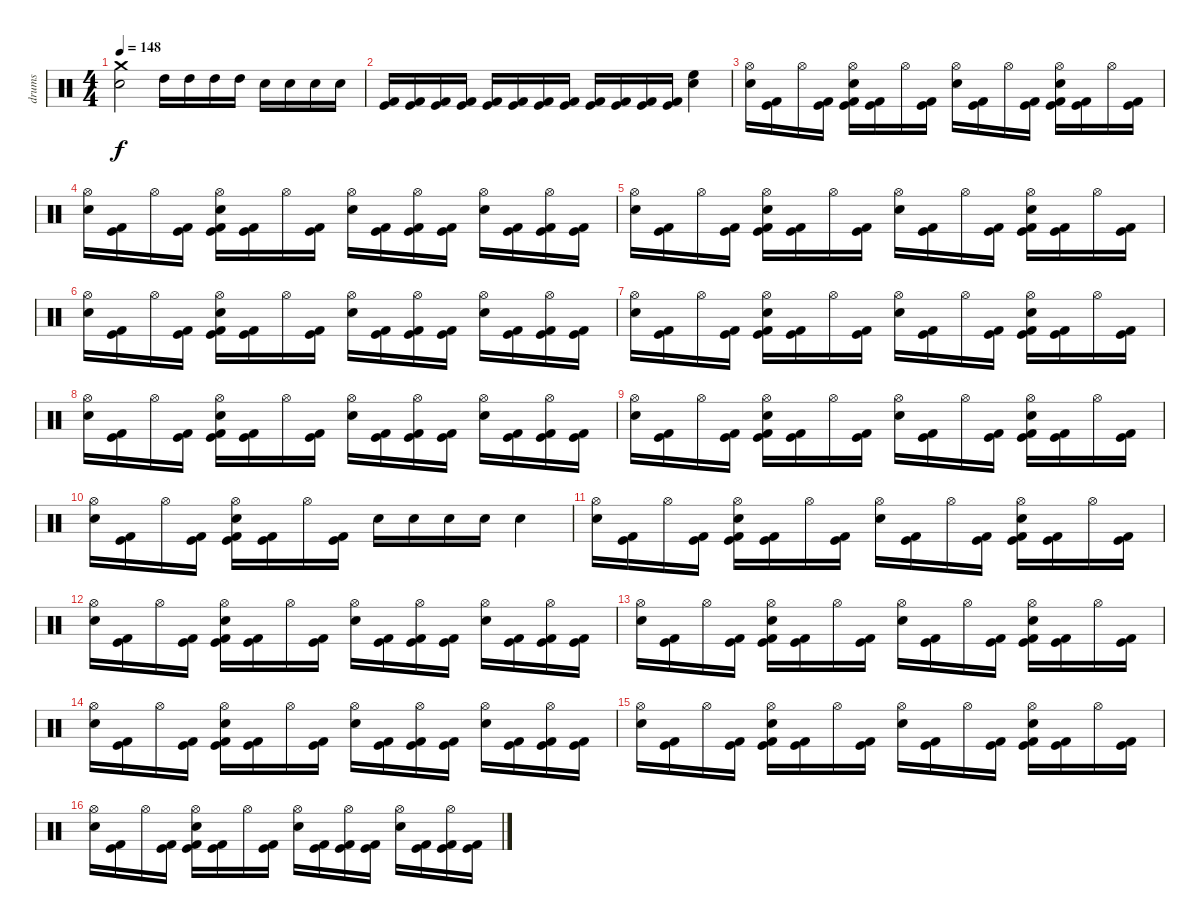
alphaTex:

\track ("drums" "drums") {instrument percussion}
\staff {score}
\articulation defaults
\ts (4 4)
\tempo 148
\clef neutral
\ks c
("Snare (hit) 2" "Crash medium (hit)").2{dy f} "High Tom (hit)".16 "High Tom (hit)".16 "High Tom (hit)".16 "High Tom (hit)".16 "Snare (hit) 2".16 "Snare (hit) 2".16 "Snare (hit) 2".16 "Snare (hit) 2".16 |
("Kick (hit)" "Kick (hit) 2").16 ("Kick (hit)" "Kick (hit) 2").16 ("Kick (hit)" "Kick (hit) 2").16 ("Kick (hit)" "Kick (hit) 2").16 ("Kick (hit)" "Kick (hit) 2").16 ("Kick (hit)" "Kick (hit) 2").16 ("Kick (hit)" "Kick (hit) 2").16 ("Kick (hit)" "Kick (hit) 2").16 ("Kick (hit)" "Kick (hit) 2").16 ("Kick (hit)" "Kick (hit) 2").16 ("Kick (hit)" "Kick (hit) 2").16 ("Kick (hit)" "Kick (hit) 2").16 ("Snare (hit) 2" "High Floor Tom (hit)").4 |
("Snare (hit) 2" "Hi-Hat (open)").16 ("Kick (hit)" "Kick (hit) 2").16 "Hi-Hat (open)".16 ("Kick (hit)" "Kick (hit) 2").16 ("Kick (hit)" "Kick (hit) 2" "Snare (hit) 2" "Hi-Hat (open)").16 ("Kick (hit)" "Kick (hit) 2").16 "Hi-Hat (open)".16 ("Kick (hit)" "Kick (hit) 2").16 ("Snare (hit) 2" "Hi-Hat (open)").16 ("Kick (hit)" "Kick (hit) 2").16 "Hi-Hat (open)".16 ("Kick (hit)" "Kick (hit) 2").16 ("Kick (hit)" "Kick (hit) 2" "Snare (hit) 2" "Hi-Hat (open)").16 ("Kick (hit)" "Kick (hit) 2").16 "Hi-Hat (open)".16 ("Kick (hit)" "Kick (hit) 2").16 |
("Snare (hit) 2" "Hi-Hat (open)").16 ("Kick (hit)" "Kick (hit) 2").16 "Hi-Hat (open)".16 ("Kick (hit)" "Kick (hit) 2").16 ("Kick (hit)" "Kick (hit) 2" "Snare (hit) 2" "Hi-Hat (open)").16 ("Kick (hit)" "Kick (hit) 2").16 "Hi-Hat (open)".16 ("Kick (hit)" "Kick (hit) 2").16 ("Snare (hit) 2" "Hi-Hat (open)").16 ("Kick (hit)" "Kick (hit) 2").16 ("Kick (hit)" "Kick (hit) 2" "Hi-Hat (open)").16 ("Kick (hit)" "Kick (hit) 2").16 ("Snare (hit) 2" "Hi-Hat (open)").16 ("Kick (hit)" "Kick (hit) 2").16 ("Kick (hit)" "Kick (hit) 2" "Hi-Hat (open)").16 ("Kick (hit)" "Kick (hit) 2").16 |
("Snare (hit) 2" "Hi-Hat (open)").16 ("Kick (hit)" "Kick (hit) 2").16 "Hi-Hat (open)".16 ("Kick (hit)" "Kick (hit) 2").16 ("Kick (hit)" "Kick (hit) 2" "Snare (hit) 2" "Hi-Hat (open)").16 ("Kick (hit)" "Kick (hit) 2").16 "Hi-Hat (open)".16 ("Kick (hit)" "Kick (hit) 2").16 ("Snare (hit) 2" "Hi-Hat (open)").16 ("Kick (hit)" "Kick (hit) 2").16 "Hi-Hat (open)".16 ("Kick (hit)" "Kick (hit) 2").16 ("Kick (hit)" "Kick (hit) 2" "Snare (hit) 2" "Hi-Hat (open)").16 ("Kick (hit)" "Kick (hit) 2").16 "Hi-Hat (open)".16 ("Kick (hit)" "Kick (hit) 2").16 |
("Snare (hit) 2" "Hi-Hat (open)").16 ("Kick (hit)" "Kick (hit) 2").16 "Hi-Hat (open)".16 ("Kick (hit)" "Kick (hit) 2").16 ("Kick (hit)" "Kick (hit) 2" "Snare (hit) 2" "Hi-Hat (open)").16 ("Kick (hit)" "Kick (hit) 2").16 "Hi-Hat (open)".16 ("Kick (hit)" "Kick (hit) 2").16 ("Snare (hit) 2" "Hi-Hat (open)").16 ("Kick (hit)" "Kick (hit) 2").16 ("Kick (hit)" "Kick (hit) 2" "Hi-Hat (open)").16 ("Kick (hit)" "Kick (hit) 2").16 ("Snare (hit) 2" "Hi-Hat (open)").16 ("Kick (hit)" "Kick (hit) 2").16 ("Kick (hit)" "Kick (hit) 2" "Hi-Hat (open)").16 ("Kick (hit)" "Kick (hit) 2").16 |
("Snare (hit) 2" "Hi-Hat (open)").16 ("Kick (hit)" "Kick (hit) 2").16 "Hi-Hat (open)".16 ("Kick (hit)" "Kick (hit) 2").16 ("Kick (hit)" "Kick (hit) 2" "Snare (hit) 2" "Hi-Hat (open)").16 ("Kick (hit)" "Kick (hit) 2").16 "Hi-Hat (open)".16 ("Kick (hit)" "Kick (hit) 2").16 ("Snare (hit) 2" "Hi-Hat (open)").16 ("Kick (hit)" "Kick (hit) 2").16 "Hi-Hat (open)".16 ("Kick (hit)" "Kick (hit) 2").16 ("Kick (hit)" "Kick (hit) 2" "Snare (hit) 2" "Hi-Hat (open)").16 ("Kick (hit)" "Kick (hit) 2").16 "Hi-Hat (open)".16 ("Kick (hit)" "Kick (hit) 2").16 |
("Snare (hit) 2" "Hi-Hat (open)").16 ("Kick (hit)" "Kick (hit) 2").16 "Hi-Hat (open)".16 ("Kick (hit)" "Kick (hit) 2").16 ("Kick (hit)" "Kick (hit) 2" "Snare (hit) 2" "Hi-Hat (open)").16 ("Kick (hit)" "Kick (hit) 2").16 "Hi-Hat (open)".16 ("Kick (hit)" "Kick (hit) 2").16 ("Snare (hit) 2" "Hi-Hat (open)").16 ("Kick (hit)" "Kick (hit) 2").16 ("Kick (hit)" "Kick (hit) 2" "Hi-Hat (open)").16 ("Kick (hit)" "Kick (hit) 2").16 ("Snare (hit) 2" "Hi-Hat (open)").16 ("Kick (hit)" "Kick (hit) 2").16 ("Kick (hit)" "Kick (hit) 2" "Hi-Hat (open)").16 ("Kick (hit)" "Kick (hit) 2").16 |
("Snare (hit) 2" "Hi-Hat (open)").16 ("Kick (hit)" "Kick (hit) 2").16 "Hi-Hat (open)".16 ("Kick (hit)" "Kick (hit) 2").16 ("Kick (hit)" "Kick (hit) 2" "Snare (hit) 2" "Hi-Hat (open)").16 ("Kick (hit)" "Kick (hit) 2").16 "Hi-Hat (open)".16 ("Kick (hit)" "Kick (hit) 2").16 ("Snare (hit) 2" "Hi-Hat (open)").16 ("Kick (hit)" "Kick (hit) 2").16 "Hi-Hat (open)".16 ("Kick (hit)" "Kick (hit) 2").16 ("Kick (hit)" "Kick (hit) 2" "Snare (hit) 2" "Hi-Hat (open)").16 ("Kick (hit)" "Kick (hit) 2").16 "Hi-Hat (open)".16 ("Kick (hit)" "Kick (hit) 2").16 |
("Snare (hit) 2" "Hi-Hat (open)").16 ("Kick (hit)" "Kick (hit) 2").16 "Hi-Hat (open)".16 ("Kick (hit)" "Kick (hit) 2").16 ("Kick (hit)" "Kick (hit) 2" "Snare (hit) 2" "Hi-Hat (open)").16 ("Kick (hit)" "Kick (hit) 2").16 "Hi-Hat (open)".16 ("Kick (hit)" "Kick (hit) 2").16 "Snare (hit) 2".16 "Snare (hit) 2".16 "Snare (hit) 2".16 "Snare (hit) 2".16 "Snare (hit) 2".4 |
("Snare (hit) 2" "Hi-Hat (open)").16 ("Kick (hit)" "Kick (hit) 2").16 "Hi-Hat (open)".16 ("Kick (hit)" "Kick (hit) 2").16 ("Kick (hit)" "Kick (hit) 2" "Snare (hit) 2" "Hi-Hat (open)").16 ("Kick (hit)" "Kick (hit) 2").16 "Hi-Hat (open)".16 ("Kick (hit)" "Kick (hit) 2").16 ("Snare (hit) 2" "Hi-Hat (open)").16 ("Kick (hit)" "Kick (hit) 2").16 "Hi-Hat (open)".16 ("Kick (hit)" "Kick (hit) 2").16 ("Kick (hit)" "Kick (hit) 2" "Snare (hit) 2" "Hi-Hat (open)").16 ("Kick (hit)" "Kick (hit) 2").16 "Hi-Hat (open)".16 ("Kick (hit)" "Kick (hit) 2").16 |
("Snare (hit) 2" "Hi-Hat (open)").16 ("Kick (hit)" "Kick (hit) 2").16 "Hi-Hat (open)".16 ("Kick (hit)" "Kick (hit) 2").16 ("Kick (hit)" "Kick (hit) 2" "Snare (hit) 2" "Hi-Hat (open)").16 ("Kick (hit)" "Kick (hit) 2").16 "Hi-Hat (open)".16 ("Kick (hit)" "Kick (hit) 2").16 ("Snare (hit) 2" "Hi-Hat (open)").16 ("Kick (hit)" "Kick (hit) 2").16 ("Kick (hit)" "Kick (hit) 2" "Hi-Hat (open)").16 ("Kick (hit)" "Kick (hit) 2").16 ("Snare (hit) 2" "Hi-Hat (open)").16 ("Kick (hit)" "Kick (hit) 2").16 ("Kick (hit)" "Kick (hit) 2" "Hi-Hat (open)").16 ("Kick (hit)" "Kick (hit) 2").16 |
("Snare (hit) 2" "Hi-Hat (open)").16 ("Kick (hit)" "Kick (hit) 2").16 "Hi-Hat (open)".16 ("Kick (hit)" "Kick (hit) 2").16 ("Kick (hit)" "Kick (hit) 2" "Snare (hit) 2" "Hi-Hat (open)").16 ("Kick (hit)" "Kick (hit) 2").16 "Hi-Hat (open)".16 ("Kick (hit)" "Kick (hit) 2").16 ("Snare (hit) 2" "Hi-Hat (open)").16 ("Kick (hit)" "Kick (hit) 2").16 "Hi-Hat (open)".16 ("Kick (hit)" "Kick (hit) 2").16 ("Kick (hit)" "Kick (hit) 2" "Snare (hit) 2" "Hi-Hat (open)").16 ("Kick (hit)" "Kick (hit) 2").16 "Hi-Hat (open)".16 ("Kick (hit)" "Kick (hit) 2").16 |
("Snare (hit) 2" "Hi-Hat (open)").16 ("Kick (hit)" "Kick (hit) 2").16 "Hi-Hat (open)".16 ("Kick (hit)" "Kick (hit) 2").16 ("Kick (hit)" "Kick (hit) 2" "Snare (hit) 2" "Hi-Hat (open)").16 ("Kick (hit)" "Kick (hit) 2").16 "Hi-Hat (open)".16 ("Kick (hit)" "Kick (hit) 2").16 ("Snare (hit) 2" "Hi-Hat (open)").16 ("Kick (hit)" "Kick (hit) 2").16 ("Kick (hit)" "Kick (hit) 2" "Hi-Hat (open)").16 ("Kick (hit)" "Kick (hit) 2").16 ("Snare (hit) 2" "Hi-Hat (open)").16 ("Kick (hit)" "Kick (hit) 2").16 ("Kick (hit)" "Kick (hit) 2" "Hi-Hat (open)").16 ("Kick (hit)" "Kick (hit) 2").16 |
("Snare (hit) 2" "Hi-Hat (open)").16 ("Kick (hit)" "Kick (hit) 2").16 "Hi-Hat (open)".16 ("Kick (hit)" "Kick (hit) 2").16 ("Kick (hit)" "Kick (hit) 2" "Snare (hit) 2" "Hi-Hat (open)").16 ("Kick (hit)" "Kick (hit) 2").16 "Hi-Hat (open)".16 ("Kick (hit)" "Kick (hit) 2").16 ("Snare (hit) 2" "Hi-Hat (open)").16 ("Kick (hit)" "Kick (hit) 2").16 "Hi-Hat (open)".16 ("Kick (hit)" "Kick (hit) 2").16 ("Kick (hit)" "Kick (hit) 2" "Snare (hit) 2" "Hi-Hat (open)").16 ("Kick (hit)" "Kick (hit) 2").16 "Hi-Hat (open)".16 ("Kick (hit)" "Kick (hit) 2").16 |
("Snare (hit) 2" "Hi-Hat (open)").16 ("Kick (hit)" "Kick (hit) 2").16 "Hi-Hat (open)".16 ("Kick (hit)" "Kick (hit) 2").16 ("Kick (hit)" "Kick (hit) 2" "Snare (hit) 2" "Hi-Hat (open)").16 ("Kick (hit)" "Kick (hit) 2").16 "Hi-Hat (open)".16 ("Kick (hit)" "Kick (hit) 2").16 ("Snare (hit) 2" "Hi-Hat (open)").16 ("Kick (hit)" "Kick (hit) 2").16 ("Kick (hit)" "Kick (hit) 2" "Hi-Hat (open)").16 ("Kick (hit)" "Kick (hit) 2").16 ("Snare (hit) 2" "Hi-Hat (open)").16 ("Kick (hit)" "Kick (hit) 2").16 ("Kick (hit)" "Kick (hit) 2" "Hi-Hat (open)").16 ("Kick (hit)" "Kick (hit) 2").16
